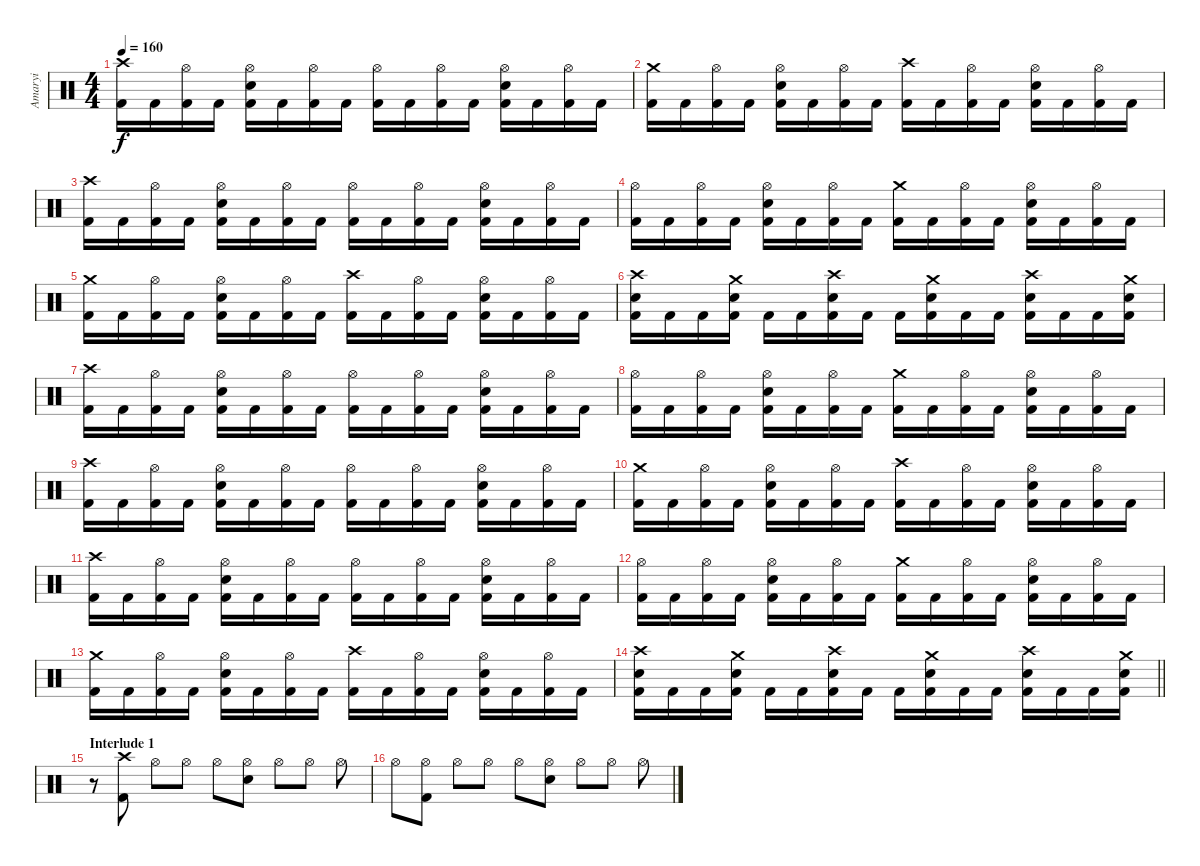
\track ("Amaryi" "Amaryi") {instrument percussion}
\staff {score}
\articulation defaults
\ts (4 4)
\tempo 160
\clef neutral
\ks c
("Crash high (hit)" "Kick (hit) 2").16{dy f} "Kick (hit) 2".16 ("Hi-Hat (open)" "Kick (hit) 2").16 "Kick (hit) 2".16 ("Hi-Hat (open)" "Electric Snare (hit)" "Kick (hit) 2").16 "Kick (hit) 2".16 ("Hi-Hat (open)" "Kick (hit) 2").16 "Kick (hit) 2".16 ("Hi-Hat (open)" "Kick (hit) 2").16 "Kick (hit) 2".16 ("Hi-Hat (open)" "Kick (hit) 2").16 "Kick (hit) 2".16 ("Hi-Hat (open)" "Electric Snare (hit)" "Kick (hit) 2").16 "Kick (hit) 2".16 ("Hi-Hat (open)" "Kick (hit) 2").16 "Kick (hit) 2".16 |
("Crash medium (hit)" "Kick (hit) 2").16 "Kick (hit) 2".16 ("Hi-Hat (open)" "Kick (hit) 2").16 "Kick (hit) 2".16 ("Hi-Hat (open)" "Electric Snare (hit)" "Kick (hit) 2").16 "Kick (hit) 2".16 ("Hi-Hat (open)" "Kick (hit) 2").16 "Kick (hit) 2".16 ("Crash high (hit)" "Kick (hit) 2").16 "Kick (hit) 2".16 ("Hi-Hat (open)" "Kick (hit) 2").16 "Kick (hit) 2".16 ("Hi-Hat (open)" "Electric Snare (hit)" "Kick (hit) 2").16 "Kick (hit) 2".16 ("Hi-Hat (open)" "Kick (hit) 2").16 "Kick (hit) 2".16 |
("Crash high (hit)" "Kick (hit) 2").16 "Kick (hit) 2".16 ("Hi-Hat (open)" "Kick (hit) 2").16 "Kick (hit) 2".16 ("Hi-Hat (open)" "Electric Snare (hit)" "Kick (hit) 2").16 "Kick (hit) 2".16 ("Hi-Hat (open)" "Kick (hit) 2").16 "Kick (hit) 2".16 ("Hi-Hat (open)" "Kick (hit) 2").16 "Kick (hit) 2".16 ("Hi-Hat (open)" "Kick (hit) 2").16 "Kick (hit) 2".16 ("Hi-Hat (open)" "Electric Snare (hit)" "Kick (hit) 2").16 "Kick (hit) 2".16 ("Hi-Hat (open)" "Kick (hit) 2").16 "Kick (hit) 2".16 |
("Hi-Hat (open)" "Kick (hit) 2").16 "Kick (hit) 2".16 ("Hi-Hat (open)" "Kick (hit) 2").16 "Kick (hit) 2".16 ("Hi-Hat (open)" "Electric Snare (hit)" "Kick (hit) 2").16 "Kick (hit) 2".16 ("Hi-Hat (open)" "Kick (hit) 2").16 "Kick (hit) 2".16 ("Crash medium (hit)" "Kick (hit) 2").16 "Kick (hit) 2".16 ("Hi-Hat (open)" "Kick (hit) 2").16 "Kick (hit) 2".16 ("Hi-Hat (open)" "Electric Snare (hit)" "Kick (hit) 2").16 "Kick (hit) 2".16 ("Hi-Hat (open)" "Kick (hit) 2").16 "Kick (hit) 2".16 |
("Crash medium (hit)" "Kick (hit) 2").16 "Kick (hit) 2".16 ("Hi-Hat (open)" "Kick (hit) 2").16 "Kick (hit) 2".16 ("Hi-Hat (open)" "Electric Snare (hit)" "Kick (hit) 2").16 "Kick (hit) 2".16 ("Hi-Hat (open)" "Kick (hit) 2").16 "Kick (hit) 2".16 ("Crash high (hit)" "Kick (hit) 2").16 "Kick (hit) 2".16 ("Hi-Hat (open)" "Kick (hit) 2").16 "Kick (hit) 2".16 ("Hi-Hat (open)" "Electric Snare (hit)" "Kick (hit) 2").16 "Kick (hit) 2".16 ("Hi-Hat (open)" "Kick (hit) 2").16 "Kick (hit) 2".16 |
("Crash high (hit)" "Electric Snare (hit)" "Kick (hit) 2").16 "Kick (hit) 2".16 "Kick (hit) 2".16 ("Crash medium (hit)" "Electric Snare (hit)" "Kick (hit) 2").16 "Kick (hit) 2".16 "Kick (hit) 2".16 ("Crash high (hit)" "Electric Snare (hit)" "Kick (hit) 2").16 "Kick (hit) 2".16 "Kick (hit) 2".16 ("Crash medium (hit)" "Electric Snare (hit)" "Kick (hit) 2").16 "Kick (hit) 2".16 "Kick (hit) 2".16 ("Crash high (hit)" "Electric Snare (hit)" "Kick (hit) 2").16 "Kick (hit) 2".16 "Kick (hit) 2".16 ("Crash medium (hit)" "Electric Snare (hit)" "Kick (hit) 2").16 |
("Crash high (hit)" "Kick (hit) 2").16 "Kick (hit) 2".16 ("Hi-Hat (open)" "Kick (hit) 2").16 "Kick (hit) 2".16 ("Hi-Hat (open)" "Electric Snare (hit)" "Kick (hit) 2").16 "Kick (hit) 2".16 ("Hi-Hat (open)" "Kick (hit) 2").16 "Kick (hit) 2".16 ("Hi-Hat (open)" "Kick (hit) 2").16 "Kick (hit) 2".16 ("Hi-Hat (open)" "Kick (hit) 2").16 "Kick (hit) 2".16 ("Hi-Hat (open)" "Electric Snare (hit)" "Kick (hit) 2").16 "Kick (hit) 2".16 ("Hi-Hat (open)" "Kick (hit) 2").16 "Kick (hit) 2".16 |
("Hi-Hat (open)" "Kick (hit) 2").16 "Kick (hit) 2".16 ("Hi-Hat (open)" "Kick (hit) 2").16 "Kick (hit) 2".16 ("Hi-Hat (open)" "Electric Snare (hit)" "Kick (hit) 2").16 "Kick (hit) 2".16 ("Hi-Hat (open)" "Kick (hit) 2").16 "Kick (hit) 2".16 ("Crash medium (hit)" "Kick (hit) 2").16 "Kick (hit) 2".16 ("Hi-Hat (open)" "Kick (hit) 2").16 "Kick (hit) 2".16 ("Hi-Hat (open)" "Electric Snare (hit)" "Kick (hit) 2").16 "Kick (hit) 2".16 ("Hi-Hat (open)" "Kick (hit) 2").16 "Kick (hit) 2".16 |
("Crash high (hit)" "Kick (hit) 2").16 "Kick (hit) 2".16 ("Hi-Hat (open)" "Kick (hit) 2").16 "Kick (hit) 2".16 ("Hi-Hat (open)" "Electric Snare (hit)" "Kick (hit) 2").16 "Kick (hit) 2".16 ("Hi-Hat (open)" "Kick (hit) 2").16 "Kick (hit) 2".16 ("Hi-Hat (open)" "Kick (hit) 2").16 "Kick (hit) 2".16 ("Hi-Hat (open)" "Kick (hit) 2").16 "Kick (hit) 2".16 ("Hi-Hat (open)" "Electric Snare (hit)" "Kick (hit) 2").16 "Kick (hit) 2".16 ("Hi-Hat (open)" "Kick (hit) 2").16 "Kick (hit) 2".16 |
("Crash medium (hit)" "Kick (hit) 2").16 "Kick (hit) 2".16 ("Hi-Hat (open)" "Kick (hit) 2").16 "Kick (hit) 2".16 ("Hi-Hat (open)" "Electric Snare (hit)" "Kick (hit) 2").16 "Kick (hit) 2".16 ("Hi-Hat (open)" "Kick (hit) 2").16 "Kick (hit) 2".16 ("Crash high (hit)" "Kick (hit) 2").16 "Kick (hit) 2".16 ("Hi-Hat (open)" "Kick (hit) 2").16 "Kick (hit) 2".16 ("Hi-Hat (open)" "Electric Snare (hit)" "Kick (hit) 2").16 "Kick (hit) 2".16 ("Hi-Hat (open)" "Kick (hit) 2").16 "Kick (hit) 2".16 |
("Crash high (hit)" "Kick (hit) 2").16 "Kick (hit) 2".16 ("Hi-Hat (open)" "Kick (hit) 2").16 "Kick (hit) 2".16 ("Hi-Hat (open)" "Electric Snare (hit)" "Kick (hit) 2").16 "Kick (hit) 2".16 ("Hi-Hat (open)" "Kick (hit) 2").16 "Kick (hit) 2".16 ("Hi-Hat (open)" "Kick (hit) 2").16 "Kick (hit) 2".16 ("Hi-Hat (open)" "Kick (hit) 2").16 "Kick (hit) 2".16 ("Hi-Hat (open)" "Electric Snare (hit)" "Kick (hit) 2").16 "Kick (hit) 2".16 ("Hi-Hat (open)" "Kick (hit) 2").16 "Kick (hit) 2".16 |
("Hi-Hat (open)" "Kick (hit) 2").16 "Kick (hit) 2".16 ("Hi-Hat (open)" "Kick (hit) 2").16 "Kick (hit) 2".16 ("Hi-Hat (open)" "Electric Snare (hit)" "Kick (hit) 2").16 "Kick (hit) 2".16 ("Hi-Hat (open)" "Kick (hit) 2").16 "Kick (hit) 2".16 ("Crash medium (hit)" "Kick (hit) 2").16 "Kick (hit) 2".16 ("Hi-Hat (open)" "Kick (hit) 2").16 "Kick (hit) 2".16 ("Hi-Hat (open)" "Electric Snare (hit)" "Kick (hit) 2").16 "Kick (hit) 2".16 ("Hi-Hat (open)" "Kick (hit) 2").16 "Kick (hit) 2".16 |
("Crash medium (hit)" "Kick (hit) 2").16 "Kick (hit) 2".16 ("Hi-Hat (open)" "Kick (hit) 2").16 "Kick (hit) 2".16 ("Hi-Hat (open)" "Electric Snare (hit)" "Kick (hit) 2").16 "Kick (hit) 2".16 ("Hi-Hat (open)" "Kick (hit) 2").16 "Kick (hit) 2".16 ("Crash high (hit)" "Kick (hit) 2").16 "Kick (hit) 2".16 ("Hi-Hat (open)" "Kick (hit) 2").16 "Kick (hit) 2".16 ("Hi-Hat (open)" "Electric Snare (hit)" "Kick (hit) 2").16 "Kick (hit) 2".16 ("Hi-Hat (open)" "Kick (hit) 2").16 "Kick (hit) 2".16 |
\barLineRight lightlight
("Crash high (hit)" "Electric Snare (hit)" "Kick (hit) 2").16 "Kick (hit) 2".16 "Kick (hit) 2".16 ("Crash medium (hit)" "Electric Snare (hit)" "Kick (hit) 2").16 "Kick (hit) 2".16 "Kick (hit) 2".16 ("Crash high (hit)" "Electric Snare (hit)" "Kick (hit) 2").16 "Kick (hit) 2".16 "Kick (hit) 2".16 ("Crash medium (hit)" "Electric Snare (hit)" "Kick (hit) 2").16 "Kick (hit) 2".16 "Kick (hit) 2".16 ("Crash high (hit)" "Electric Snare (hit)" "Kick (hit) 2").16 "Kick (hit) 2".16 "Kick (hit) 2".16 ("Crash medium (hit)" "Electric Snare (hit)" "Kick (hit) 2").16 |
\section ("" "Interlude 1")
r.8 ("Crash high (hit)" "Kick (hit) 2").8 "Hi-Hat (open)".8 "Hi-Hat (open)".8 "Hi-Hat (open)".8 ("Hi-Hat (open)" "Electric Snare (hit)").8 "Hi-Hat (open)".8 "Hi-Hat (open)".8 "Hi-Hat (open)".8 |
"Hi-Hat (open)".8 ("Hi-Hat (open)" "Kick (hit) 2").8 "Hi-Hat (open)".8 "Hi-Hat (open)".8 "Hi-Hat (open)".8 ("Hi-Hat (open)" "Electric Snare (hit)").8 "Hi-Hat (open)".8 "Hi-Hat (open)".8 "Hi-Hat (open)".8
